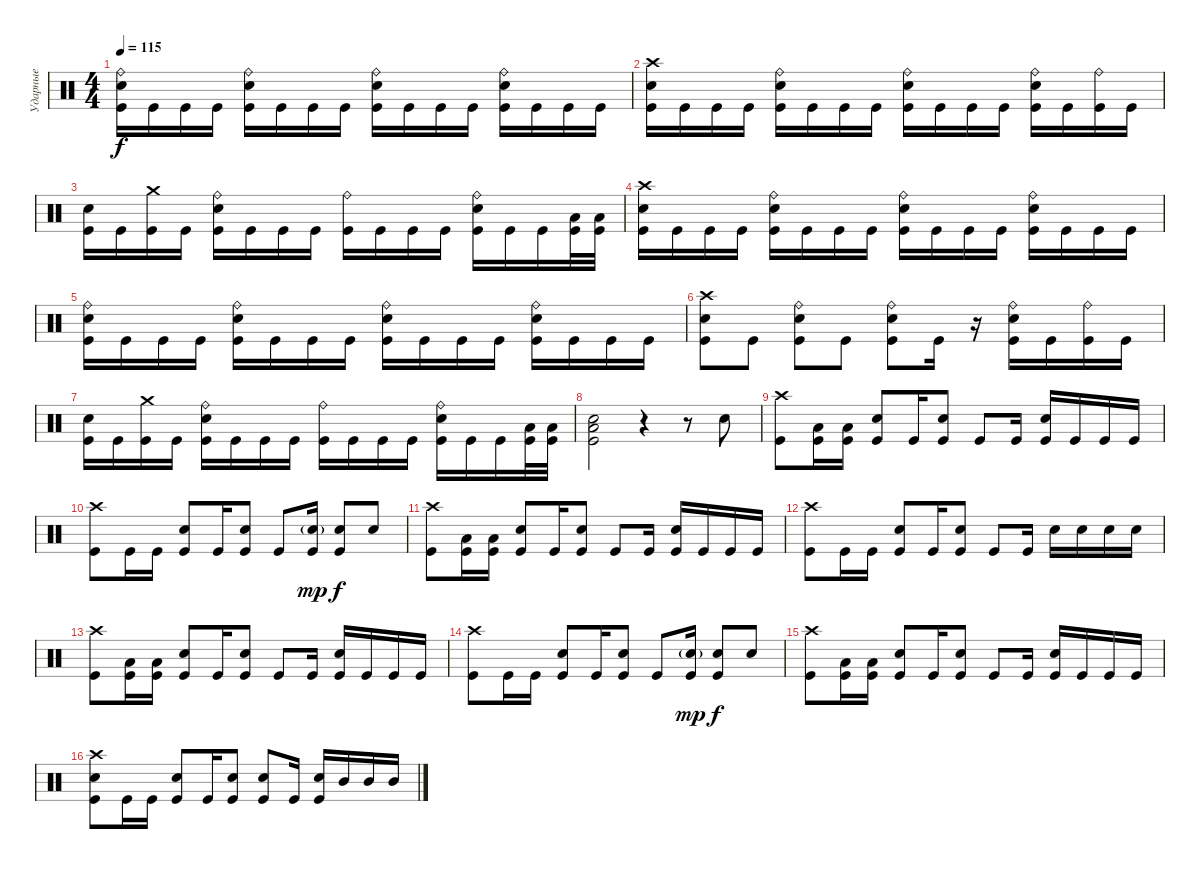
\track ("Ударные" "Ударные") {instrument percussion}
\staff {score}
\articulation defaults
\ts (4 4)
\tempo 115
\clef neutral
\ks c
("Ride (bell)" "Electric Snare (hit)" "Kick (hit)").16{dy f} "Kick (hit)".16 "Kick (hit)".16 "Kick (hit)".16 ("Ride (bell)" "Electric Snare (hit)" "Kick (hit)").16 "Kick (hit)".16 "Kick (hit)".16 "Kick (hit)".16 ("Ride (bell)" "Electric Snare (hit)" "Kick (hit)").16 "Kick (hit)".16 "Kick (hit)".16 "Kick (hit)".16 ("Ride (bell)" "Electric Snare (hit)" "Kick (hit)").16 "Kick (hit)".16 "Kick (hit)".16 "Kick (hit)".16 |
("Crash high (hit)" "Electric Snare (hit)" "Kick (hit)").16 "Kick (hit)".16 "Kick (hit)".16 "Kick (hit)".16 ("Ride (bell)" "Electric Snare (hit)" "Kick (hit)").16 "Kick (hit)".16 "Kick (hit)".16 "Kick (hit)".16 ("Ride (bell)" "Electric Snare (hit)" "Kick (hit)").16 "Kick (hit)".16 "Kick (hit)".16 "Kick (hit)".16 ("Ride (bell)" "Electric Snare (hit)" "Kick (hit)").16 "Kick (hit)".16 ("Ride (bell)" "Kick (hit)").16 "Kick (hit)".16 |
("Electric Snare (hit)" "Kick (hit)").16 "Kick (hit)".16 ("Crash medium (hit)" "Kick (hit)").16 "Kick (hit)".16 ("Ride (bell)" "Electric Snare (hit)" "Kick (hit)").16 "Kick (hit)".16 "Kick (hit)".16 "Kick (hit)".16 ("Ride (bell)" "Kick (hit)").16 "Kick (hit)".16 "Kick (hit)".16 "Kick (hit)".16 ("Ride (bell)" "Electric Snare (hit)" "Kick (hit)").16 "Kick (hit)".16 "Kick (hit)".16 ("Low Tom (hit)" "Kick (hit)").32 ("Low Tom (hit)" "Kick (hit)").32 |
("Crash high (hit)" "Electric Snare (hit)" "Kick (hit)").16 "Kick (hit)".16 "Kick (hit)".16 "Kick (hit)".16 ("Ride (bell)" "Electric Snare (hit)" "Kick (hit)").16 "Kick (hit)".16 "Kick (hit)".16 "Kick (hit)".16 ("Ride (bell)" "Electric Snare (hit)" "Kick (hit)").16 "Kick (hit)".16 "Kick (hit)".16 "Kick (hit)".16 ("Ride (bell)" "Electric Snare (hit)" "Kick (hit)").16 "Kick (hit)".16 "Kick (hit)".16 "Kick (hit)".16 |
("Ride (bell)" "Electric Snare (hit)" "Kick (hit)").16 "Kick (hit)".16 "Kick (hit)".16 "Kick (hit)".16 ("Ride (bell)" "Electric Snare (hit)" "Kick (hit)").16 "Kick (hit)".16 "Kick (hit)".16 "Kick (hit)".16 ("Ride (bell)" "Electric Snare (hit)" "Kick (hit)").16 "Kick (hit)".16 "Kick (hit)".16 "Kick (hit)".16 ("Ride (bell)" "Electric Snare (hit)" "Kick (hit)").16 "Kick (hit)".16 "Kick (hit)".16 "Kick (hit)".16 |
("Crash high (hit)" "Electric Snare (hit)" "Kick (hit)").8 "Kick (hit)".8 ("Ride (bell)" "Electric Snare (hit)" "Kick (hit)").8 "Kick (hit)".8 ("Ride (bell)" "Electric Snare (hit)" "Kick (hit)").8 "Kick (hit)".16 r.16 ("Ride (bell)" "Electric Snare (hit)" "Kick (hit)").16 "Kick (hit)".16 ("Ride (bell)" "Kick (hit)").16 "Kick (hit)".16 |
("Electric Snare (hit)" "Kick (hit)").16 "Kick (hit)".16 ("Crash medium (hit)" "Kick (hit)").16 "Kick (hit)".16 ("Ride (bell)" "Electric Snare (hit)" "Kick (hit)").16 "Kick (hit)".16 "Kick (hit)".16 "Kick (hit)".16 ("Ride (bell)" "Kick (hit)").16 "Kick (hit)".16 "Kick (hit)".16 "Kick (hit)".16 ("Ride (bell)" "Electric Snare (hit)" "Kick (hit)").16 "Kick (hit)".16 "Kick (hit)".16 ("Low Tom (hit)" "Kick (hit)").32 ("Low Tom (hit)" "Kick (hit)").32 |
("Low Tom (hit)" "Electric Snare (hit)" "Kick (hit)").2 r.4 r.8 "Electric Snare (hit)".8 |
("Crash high (hit)" "Kick (hit)").8 ("Low Tom (hit)" "Kick (hit)").16 ("Low Tom (hit)" "Kick (hit)").16 ("Electric Snare (hit)" "Kick (hit)").8 "Kick (hit)".16 ("Electric Snare (hit)" "Kick (hit)").8 "Kick (hit)".8 "Kick (hit)".16 ("Electric Snare (hit)" "Kick (hit)").16 "Kick (hit)".16 "Kick (hit)".16 "Kick (hit)".16 |
("Crash high (hit)" "Kick (hit)").8 "Kick (hit)".16 "Kick (hit)".16 ("Electric Snare (hit)" "Kick (hit)").8 "Kick (hit)".16 ("Electric Snare (hit)" "Kick (hit)").8 "Kick (hit)".8 ("Electric Snare (hit)"{g} "Kick (hit)").16{dy mp} ("Electric Snare (hit)" "Kick (hit)").8{dy f} "Electric Snare (hit)".8 |
("Crash high (hit)" "Kick (hit)").8 ("Low Tom (hit)" "Kick (hit)").16 ("Low Tom (hit)" "Kick (hit)").16 ("Electric Snare (hit)" "Kick (hit)").8 "Kick (hit)".16 ("Electric Snare (hit)" "Kick (hit)").8 "Kick (hit)".8 "Kick (hit)".16 ("Electric Snare (hit)" "Kick (hit)").16 "Kick (hit)".16 "Kick (hit)".16 "Kick (hit)".16 |
("Crash high (hit)" "Kick (hit)").8 "Kick (hit)".16 "Kick (hit)".16 ("Electric Snare (hit)" "Kick (hit)").8 "Kick (hit)".16 ("Electric Snare (hit)" "Kick (hit)").8 "Kick (hit)".8 "Kick (hit)".16 "Electric Snare (hit)".16 "Electric Snare (hit)".16 "Electric Snare (hit)".16 "Electric Snare (hit)".16 |
("Crash high (hit)" "Kick (hit)").8 ("Low Tom (hit)" "Kick (hit)").16 ("Low Tom (hit)" "Kick (hit)").16 ("Electric Snare (hit)" "Kick (hit)").8 "Kick (hit)".16 ("Electric Snare (hit)" "Kick (hit)").8 "Kick (hit)".8 "Kick (hit)".16 ("Electric Snare (hit)" "Kick (hit)").16 "Kick (hit)".16 "Kick (hit)".16 "Kick (hit)".16 |
("Crash high (hit)" "Kick (hit)").8 "Kick (hit)".16 "Kick (hit)".16 ("Electric Snare (hit)" "Kick (hit)").8 "Kick (hit)".16 ("Electric Snare (hit)" "Kick (hit)").8 "Kick (hit)".8 ("Electric Snare (hit)"{g} "Kick (hit)").16{dy mp} ("Electric Snare (hit)" "Kick (hit)").8{dy f} "Electric Snare (hit)".8 |
("Crash high (hit)" "Kick (hit)").8 ("Low Tom (hit)" "Kick (hit)").16 ("Low Tom (hit)" "Kick (hit)").16 ("Electric Snare (hit)" "Kick (hit)").8 "Kick (hit)".16 ("Electric Snare (hit)" "Kick (hit)").8 "Kick (hit)".8 "Kick (hit)".16 ("Electric Snare (hit)" "Kick (hit)").16 "Kick (hit)".16 "Kick (hit)".16 "Kick (hit)".16 |
("Crash high (hit)" "Electric Snare (hit)" "Kick (hit)").8 "Kick (hit)".16 "Kick (hit)".16 ("Electric Snare (hit)" "Kick (hit)").8 "Kick (hit)".16 ("Electric Snare (hit)" "Kick (hit)").8 ("Electric Snare (hit)" "Kick (hit)").8 "Kick (hit)".16 ("Electric Snare (hit)" "Kick (hit)").16 "Mid Tom (hit)".16 "Mid Tom (hit)".16 "Mid Tom (hit)".16
